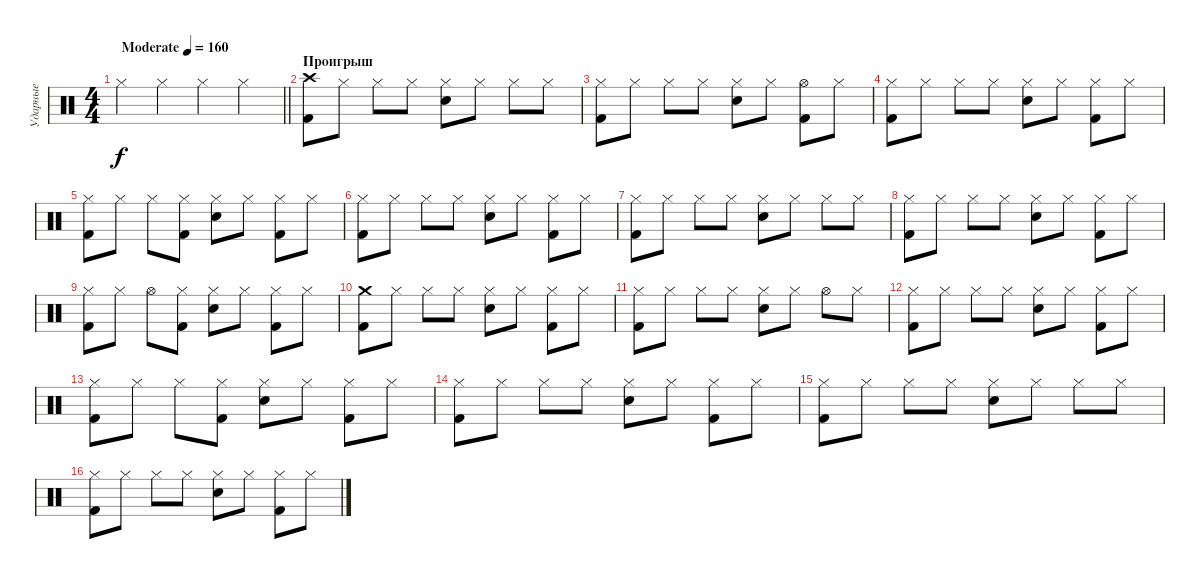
\track ("Ударные" "Ударные") {instrument percussion}
\staff {score}
\articulation defaults
\ts (4 4)
\tempo (160 "Moderate")
\clef neutral
\barLineRight lightlight
\ks c "Hi-Hat (closed)".4{dy f} "Hi-Hat (closed)".4 "Hi-Hat (closed)".4 "Hi-Hat (closed)".4
|
\section ("" "Проигрыш")
("Kick (hit) 2" "Crash high (hit)").8 "Hi-Hat (closed)".8 "Hi-Hat (closed)".8 "Hi-Hat (closed)".8 ("Electric Snare (hit)" "Hi-Hat (closed)").8 "Hi-Hat (closed)".8 "Hi-Hat (closed)".8 "Hi-Hat (closed)".8 |
("Kick (hit) 2" "Hi-Hat (closed)").8 "Hi-Hat (closed)".8 "Hi-Hat (closed)".8 "Hi-Hat (closed)".8 ("Electric Snare (hit)" "Hi-Hat (closed)").8 "Hi-Hat (closed)".8 ("Kick (hit) 2" "Hi-Hat (open)").8 "Hi-Hat (closed)".8 |
("Kick (hit) 2" "Hi-Hat (closed)").8 "Hi-Hat (closed)".8 "Hi-Hat (closed)".8 "Hi-Hat (closed)".8 ("Electric Snare (hit)" "Hi-Hat (closed)").8 "Hi-Hat (closed)".8 ("Kick (hit) 2" "Hi-Hat (closed)").8 "Hi-Hat (closed)".8 |
("Kick (hit) 2" "Hi-Hat (closed)").8 "Hi-Hat (closed)".8 "Hi-Hat (closed)".8 ("Kick (hit) 2" "Hi-Hat (closed)").8 ("Electric Snare (hit)" "Hi-Hat (closed)").8 "Hi-Hat (closed)".8 ("Kick (hit) 2" "Hi-Hat (closed)").8 "Hi-Hat (closed)".8 |
("Kick (hit) 2" "Hi-Hat (closed)").8 "Hi-Hat (closed)".8 "Hi-Hat (closed)".8 "Hi-Hat (closed)".8 ("Electric Snare (hit)" "Hi-Hat (closed)").8 "Hi-Hat (closed)".8 ("Kick (hit) 2" "Hi-Hat (closed)").8 "Hi-Hat (closed)".8 |
("Kick (hit) 2" "Hi-Hat (closed)").8 "Hi-Hat (closed)".8 "Hi-Hat (closed)".8 "Hi-Hat (closed)".8 ("Electric Snare (hit)" "Hi-Hat (closed)").8 "Hi-Hat (closed)".8 "Hi-Hat (closed)".8 "Hi-Hat (closed)".8 |
("Kick (hit) 2" "Hi-Hat (closed)").8 "Hi-Hat (closed)".8 "Hi-Hat (closed)".8 "Hi-Hat (closed)".8 ("Electric Snare (hit)" "Hi-Hat (closed)").8 "Hi-Hat (closed)".8 ("Kick (hit) 2" "Hi-Hat (closed)").8 "Hi-Hat (closed)".8 |
("Kick (hit) 2" "Hi-Hat (closed)").8 "Hi-Hat (closed)".8 "Hi-Hat (open)".8 ("Kick (hit) 2" "Hi-Hat (closed)").8 ("Electric Snare (hit)" "Hi-Hat (closed)").8 "Hi-Hat (closed)".8 ("Kick (hit) 2" "Hi-Hat (closed)").8 "Hi-Hat (closed)".8 |
("Kick (hit) 2" "Crash medium (hit)").8 "Hi-Hat (closed)".8 "Hi-Hat (closed)".8 "Hi-Hat (closed)".8 ("Electric Snare (hit)" "Hi-Hat (closed)").8 "Hi-Hat (closed)".8 ("Kick (hit) 2" "Hi-Hat (closed)").8 "Hi-Hat (closed)".8 |
("Kick (hit) 2" "Hi-Hat (closed)").8 "Hi-Hat (closed)".8 "Hi-Hat (closed)".8 "Hi-Hat (closed)".8 ("Electric Snare (hit)" "Hi-Hat (closed)").8 "Hi-Hat (closed)".8 "Hi-Hat (open)".8 "Hi-Hat (closed)".8 |
("Kick (hit) 2" "Hi-Hat (closed)").8 "Hi-Hat (closed)".8 "Hi-Hat (closed)".8 "Hi-Hat (closed)".8 ("Electric Snare (hit)" "Hi-Hat (closed)").8 "Hi-Hat (closed)".8 ("Kick (hit) 2" "Hi-Hat (closed)").8 "Hi-Hat (closed)".8 |
("Kick (hit) 2" "Hi-Hat (closed)").8 "Hi-Hat (closed)".8 "Hi-Hat (closed)".8 ("Kick (hit) 2" "Hi-Hat (closed)").8 ("Electric Snare (hit)" "Hi-Hat (closed)").8 "Hi-Hat (closed)".8 ("Kick (hit) 2" "Hi-Hat (closed)").8 "Hi-Hat (closed)".8 |
("Kick (hit) 2" "Hi-Hat (closed)").8 "Hi-Hat (closed)".8 "Hi-Hat (closed)".8 "Hi-Hat (closed)".8 ("Electric Snare (hit)" "Hi-Hat (closed)").8 "Hi-Hat (closed)".8 ("Kick (hit) 2" "Hi-Hat (closed)").8 "Hi-Hat (closed)".8 |
("Kick (hit) 2" "Hi-Hat (closed)").8 "Hi-Hat (closed)".8 "Hi-Hat (closed)".8 "Hi-Hat (closed)".8 ("Electric Snare (hit)" "Hi-Hat (closed)").8 "Hi-Hat (closed)".8 "Hi-Hat (closed)".8 "Hi-Hat (closed)".8 |
("Kick (hit) 2" "Hi-Hat (closed)").8 "Hi-Hat (closed)".8 "Hi-Hat (closed)".8 "Hi-Hat (closed)".8 ("Electric Snare (hit)" "Hi-Hat (closed)").8 "Hi-Hat (closed)".8 ("Kick (hit) 2" "Hi-Hat (closed)").8 "Hi-Hat (closed)".8
